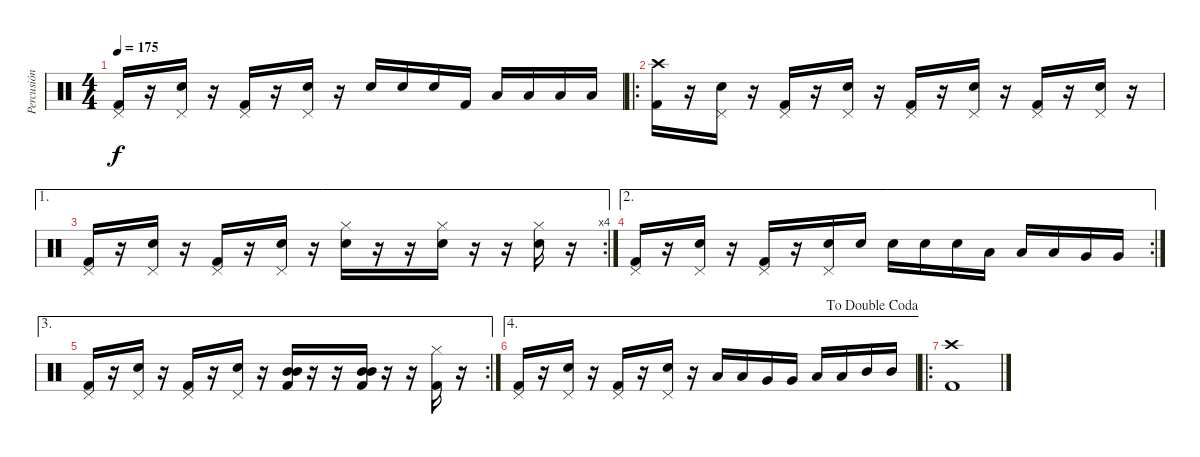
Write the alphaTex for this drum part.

\track ("Percusión" "Percusión") {solo instrument percussion}
\staff {score}
\articulation defaults
\ts (4 4)
\tempo 175
\clef neutral
\ks c
("Kick (hit) 2" "Pedal Hi-Hat (hit)").16{dy f} r.16 ("Electric Snare (hit)" "Pedal Hi-Hat (hit)").16 r.16 ("Kick (hit) 2" "Pedal Hi-Hat (hit)").16 r.16 ("Electric Snare (hit)" "Pedal Hi-Hat (hit)").16 r.16 "Electric Snare (hit)".16 "Electric Snare (hit)".16 "Electric Snare (hit)".16 "Kick (hit) 2".16 "Low Floor Tom (hit)".16 "Low Floor Tom (hit)".16 "Low Floor Tom (hit)".16 "Low Floor Tom (hit)".16 |
\ro
("Kick (hit) 2" "Crash high (hit)").16 r.16 ("Electric Snare (hit)" "Pedal Hi-Hat (hit)").16 r.16 ("Kick (hit) 2" "Pedal Hi-Hat (hit)").16 r.16 ("Electric Snare (hit)" "Pedal Hi-Hat (hit)").16 r.16 ("Kick (hit) 2" "Pedal Hi-Hat (hit)").16 r.16 ("Electric Snare (hit)" "Pedal Hi-Hat (hit)").16 r.16 ("Kick (hit) 2" "Pedal Hi-Hat (hit)").16 r.16 ("Electric Snare (hit)" "Pedal Hi-Hat (hit)").16 r.16 |
\ae 1
\rc 4
("Kick (hit) 2" "Pedal Hi-Hat (hit)").16 r.16 ("Electric Snare (hit)" "Pedal Hi-Hat (hit)").16 r.16 ("Kick (hit) 2" "Pedal Hi-Hat (hit)").16 r.16 ("Electric Snare (hit)" "Pedal Hi-Hat (hit)").16 r.16 ("Electric Snare (hit)" "Hi-Hat (closed)").16 r.16 r.16 ("Electric Snare (hit)" "Hi-Hat (closed)").16 r.16 r.16 ("Electric Snare (hit)" "Hi-Hat (closed)").16 r.16 |
\ae 2
\rc 2
("Kick (hit) 2" "Pedal Hi-Hat (hit)").16 r.16 ("Electric Snare (hit)" "Pedal Hi-Hat (hit)").16 r.16 ("Kick (hit) 2" "Pedal Hi-Hat (hit)").16 r.16 ("Electric Snare (hit)" "Pedal Hi-Hat (hit)").16 "Electric Snare (hit)".16 "Electric Snare (hit)".16 "Electric Snare (hit)".16 "Electric Snare (hit)".16 "Low Floor Tom (hit)".16 "Low Floor Tom (hit)".16 "Low Floor Tom (hit)".16 "Very Low Tom (hit)".16 "Very Low Tom (hit)".16 |
\ae 3
\rc 2
("Kick (hit) 2" "Pedal Hi-Hat (hit)").16 r.16 ("Electric Snare (hit)" "Pedal Hi-Hat (hit)").16 r.16 ("Kick (hit) 2" "Pedal Hi-Hat (hit)").16 r.16 ("Electric Snare (hit)" "Pedal Hi-Hat (hit)").16 r.16 ("Mid Tom (hit)" "Mid Tom (hit)" "Kick (hit) 2").16 r.16 r.16 ("Mid Tom (hit)" "Mid Tom (hit)" "Kick (hit) 2").16 r.16 r.16 ("Kick (hit) 2" "Hi-Hat (closed)").16 r.16 |
\ae 4
\jump dadoublecoda
("Kick (hit) 2" "Pedal Hi-Hat (hit)").16 r.16 ("Electric Snare (hit)" "Pedal Hi-Hat (hit)").16 r.16 ("Kick (hit) 2" "Pedal Hi-Hat (hit)").16 r.16 ("Electric Snare (hit)" "Pedal Hi-Hat (hit)").16 r.16 "Low Floor Tom (hit)".16 "Low Floor Tom (hit)".16 "Very Low Tom (hit)".16 "Very Low Tom (hit)".16 "Low Tom (hit)".16 "Low Tom (hit)".16 "Mid Tom (hit)".16 "Mid Tom (hit)".16 |
\ro
("Crash high (hit)" "Kick (hit) 2").1
